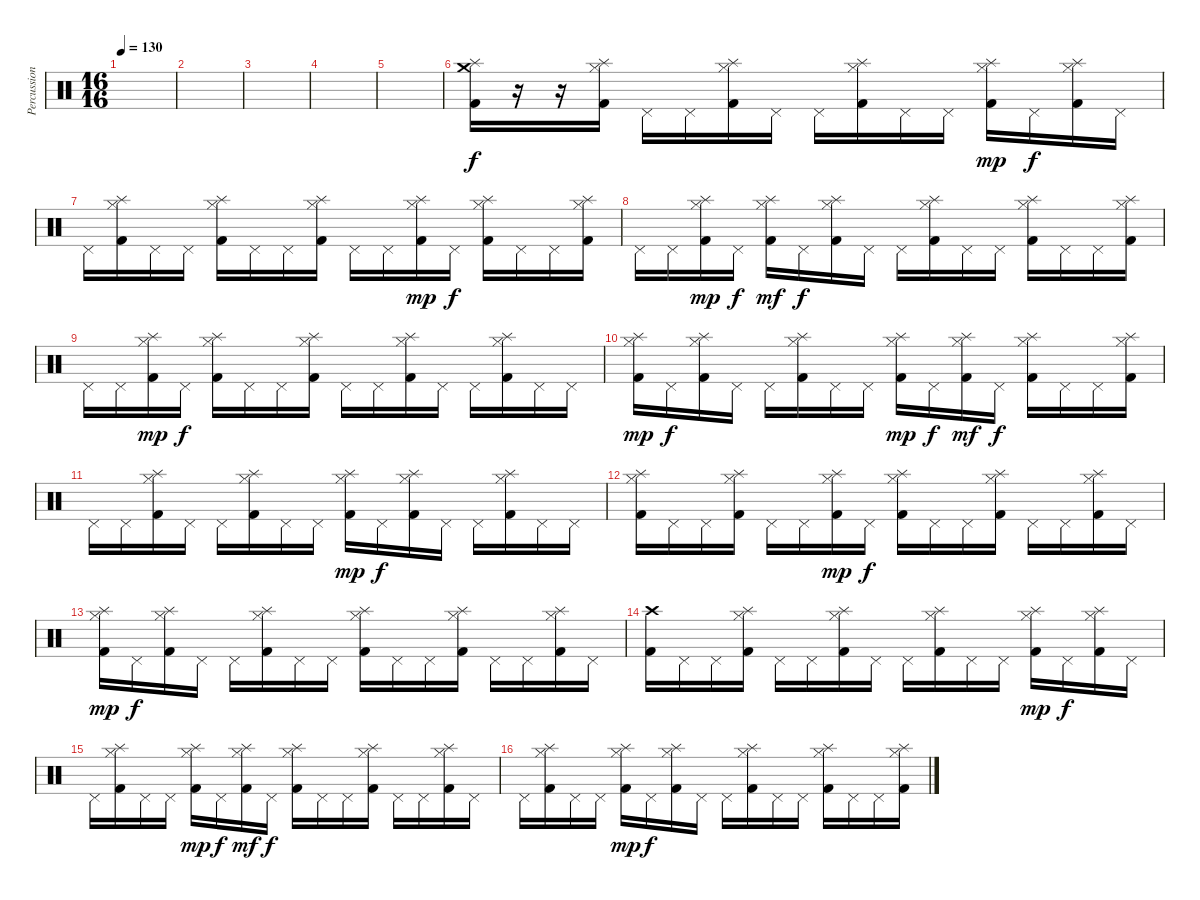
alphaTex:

\track ("Percussions" "Percussion") {instrument percussion}
\staff {score}
\articulation defaults
\ts (16 16)
\tempo 130
\clef neutral
\ks c
|
|
|
|
|
("Crash medium (hit)" "Splash (hit)" "Kick (hit) 2").16 r.16 r.16 ("Splash (hit)" "Hi-Hat (closed)" "Kick (hit) 2").16 "Pedal Hi-Hat (hit)".16 "Pedal Hi-Hat (hit)".16 ("Splash (hit)" "Hi-Hat (closed)" "Kick (hit) 2").16 "Pedal Hi-Hat (hit)".16 "Pedal Hi-Hat (hit)".16 ("Splash (hit)" "Hi-Hat (closed)" "Kick (hit) 2").16 "Pedal Hi-Hat (hit)".16 "Pedal Hi-Hat (hit)".16 ("Splash (hit)" "Hi-Hat (closed)" "Kick (hit) 2").16{dy mp} "Pedal Hi-Hat (hit)".16{dy f} ("Splash (hit)" "Hi-Hat (closed)" "Kick (hit) 2").16 "Pedal Hi-Hat (hit)".16 |
"Pedal Hi-Hat (hit)".16 ("Splash (hit)" "Hi-Hat (closed)" "Kick (hit) 2").16 "Pedal Hi-Hat (hit)".16 "Pedal Hi-Hat (hit)".16 ("Splash (hit)" "Hi-Hat (closed)" "Kick (hit) 2").16 "Pedal Hi-Hat (hit)".16 "Pedal Hi-Hat (hit)".16 ("Splash (hit)" "Hi-Hat (closed)" "Kick (hit) 2").16 "Pedal Hi-Hat (hit)".16 "Pedal Hi-Hat (hit)".16 ("Splash (hit)" "Hi-Hat (closed)" "Kick (hit) 2").16{dy mp} "Pedal Hi-Hat (hit)".16{dy f} ("Splash (hit)" "Hi-Hat (closed)" "Kick (hit) 2").16 "Pedal Hi-Hat (hit)".16 "Pedal Hi-Hat (hit)".16 ("Splash (hit)" "Hi-Hat (closed)" "Kick (hit) 2").16 |
"Pedal Hi-Hat (hit)".16 "Pedal Hi-Hat (hit)".16 ("Splash (hit)" "Hi-Hat (closed)" "Kick (hit) 2").16{dy mp} "Pedal Hi-Hat (hit)".16{dy f} ("Splash (hit)" "Hi-Hat (closed)" "Kick (hit) 2").16{dy mf} "Pedal Hi-Hat (hit)".16{dy f} ("Splash (hit)" "Hi-Hat (closed)" "Kick (hit) 2").16 "Pedal Hi-Hat (hit)".16 "Pedal Hi-Hat (hit)".16 ("Splash (hit)" "Hi-Hat (closed)" "Kick (hit) 2").16 "Pedal Hi-Hat (hit)".16 "Pedal Hi-Hat (hit)".16 ("Splash (hit)" "Hi-Hat (closed)" "Kick (hit) 2").16 "Pedal Hi-Hat (hit)".16 "Pedal Hi-Hat (hit)".16 ("Splash (hit)" "Hi-Hat (closed)" "Kick (hit) 2").16 |
"Pedal Hi-Hat (hit)".16 "Pedal Hi-Hat (hit)".16 ("Splash (hit)" "Hi-Hat (closed)" "Kick (hit) 2").16{dy mp} "Pedal Hi-Hat (hit)".16{dy f} ("Splash (hit)" "Hi-Hat (closed)" "Kick (hit) 2").16 "Pedal Hi-Hat (hit)".16 "Pedal Hi-Hat (hit)".16 ("Splash (hit)" "Hi-Hat (closed)" "Kick (hit) 2").16 "Pedal Hi-Hat (hit)".16 "Pedal Hi-Hat (hit)".16 ("Splash (hit)" "Hi-Hat (closed)" "Kick (hit) 2").16 "Pedal Hi-Hat (hit)".16 "Pedal Hi-Hat (hit)".16 ("Splash (hit)" "Hi-Hat (closed)" "Kick (hit) 2").16 "Pedal Hi-Hat (hit)".16 "Pedal Hi-Hat (hit)".16 |
("Splash (hit)" "Hi-Hat (closed)" "Kick (hit) 2").16{dy mp} "Pedal Hi-Hat (hit)".16{dy f} ("Splash (hit)" "Hi-Hat (closed)" "Kick (hit) 2").16 "Pedal Hi-Hat (hit)".16 "Pedal Hi-Hat (hit)".16 ("Splash (hit)" "Hi-Hat (closed)" "Kick (hit) 2").16 "Pedal Hi-Hat (hit)".16 "Pedal Hi-Hat (hit)".16 ("Splash (hit)" "Hi-Hat (closed)" "Kick (hit) 2").16{dy mp} "Pedal Hi-Hat (hit)".16{dy f} ("Splash (hit)" "Hi-Hat (closed)" "Kick (hit) 2").16{dy mf} "Pedal Hi-Hat (hit)".16{dy f} ("Splash (hit)" "Hi-Hat (closed)" "Kick (hit) 2").16 "Pedal Hi-Hat (hit)".16 "Pedal Hi-Hat (hit)".16 ("Splash (hit)" "Hi-Hat (closed)" "Kick (hit) 2").16 |
"Pedal Hi-Hat (hit)".16 "Pedal Hi-Hat (hit)".16 ("Splash (hit)" "Hi-Hat (closed)" "Kick (hit) 2").16 "Pedal Hi-Hat (hit)".16 "Pedal Hi-Hat (hit)".16 ("Splash (hit)" "Hi-Hat (closed)" "Kick (hit) 2").16 "Pedal Hi-Hat (hit)".16 "Pedal Hi-Hat (hit)".16 ("Splash (hit)" "Hi-Hat (closed)" "Kick (hit) 2").16{dy mp} "Pedal Hi-Hat (hit)".16{dy f} ("Splash (hit)" "Hi-Hat (closed)" "Kick (hit) 2").16 "Pedal Hi-Hat (hit)".16 "Pedal Hi-Hat (hit)".16 ("Splash (hit)" "Hi-Hat (closed)" "Kick (hit) 2").16 "Pedal Hi-Hat (hit)".16 "Pedal Hi-Hat (hit)".16 |
("Splash (hit)" "Hi-Hat (closed)" "Kick (hit) 2").16 "Pedal Hi-Hat (hit)".16 "Pedal Hi-Hat (hit)".16 ("Splash (hit)" "Hi-Hat (closed)" "Kick (hit) 2").16 "Pedal Hi-Hat (hit)".16 "Pedal Hi-Hat (hit)".16 ("Splash (hit)" "Hi-Hat (closed)" "Kick (hit) 2").16{dy mp} "Pedal Hi-Hat (hit)".16{dy f} ("Splash (hit)" "Hi-Hat (closed)" "Kick (hit) 2").16 "Pedal Hi-Hat (hit)".16 "Pedal Hi-Hat (hit)".16 ("Splash (hit)" "Hi-Hat (closed)" "Kick (hit) 2").16 "Pedal Hi-Hat (hit)".16 "Pedal Hi-Hat (hit)".16 ("Splash (hit)" "Hi-Hat (closed)" "Kick (hit) 2").16 "Pedal Hi-Hat (hit)".16 |
("Splash (hit)" "Hi-Hat (closed)" "Kick (hit) 2").16{dy mp} "Pedal Hi-Hat (hit)".16{dy f} ("Splash (hit)" "Hi-Hat (closed)" "Kick (hit) 2").16 "Pedal Hi-Hat (hit)".16 "Pedal Hi-Hat (hit)".16 ("Splash (hit)" "Hi-Hat (closed)" "Kick (hit) 2").16 "Pedal Hi-Hat (hit)".16 "Pedal Hi-Hat (hit)".16 ("Splash (hit)" "Hi-Hat (closed)" "Kick (hit) 2").16 "Pedal Hi-Hat (hit)".16 "Pedal Hi-Hat (hit)".16 ("Splash (hit)" "Hi-Hat (closed)" "Kick (hit) 2").16 "Pedal Hi-Hat (hit)".16 "Pedal Hi-Hat (hit)".16 ("Splash (hit)" "Hi-Hat (closed)" "Kick (hit) 2").16 "Pedal Hi-Hat (hit)".16 |
("Crash high (hit)" "Kick (hit) 2").16 "Pedal Hi-Hat (hit)".16 "Pedal Hi-Hat (hit)".16 ("Splash (hit)" "Hi-Hat (closed)" "Kick (hit) 2").16 "Pedal Hi-Hat (hit)".16 "Pedal Hi-Hat (hit)".16 ("Splash (hit)" "Hi-Hat (closed)" "Kick (hit) 2").16 "Pedal Hi-Hat (hit)".16 "Pedal Hi-Hat (hit)".16 ("Splash (hit)" "Hi-Hat (closed)" "Kick (hit) 2").16 "Pedal Hi-Hat (hit)".16 "Pedal Hi-Hat (hit)".16 ("Splash (hit)" "Hi-Hat (closed)" "Kick (hit) 2").16{dy mp} "Pedal Hi-Hat (hit)".16{dy f} ("Splash (hit)" "Hi-Hat (closed)" "Kick (hit) 2").16 "Pedal Hi-Hat (hit)".16 |
"Pedal Hi-Hat (hit)".16 ("Splash (hit)" "Hi-Hat (closed)" "Kick (hit) 2").16 "Pedal Hi-Hat (hit)".16 "Pedal Hi-Hat (hit)".16 ("Splash (hit)" "Hi-Hat (closed)" "Kick (hit) 2").16{dy mp} "Pedal Hi-Hat (hit)".16{dy f} ("Splash (hit)" "Hi-Hat (closed)" "Kick (hit) 2").16{dy mf} "Pedal Hi-Hat (hit)".16{dy f} ("Splash (hit)" "Hi-Hat (closed)" "Kick (hit) 2").16 "Pedal Hi-Hat (hit)".16 "Pedal Hi-Hat (hit)".16 ("Splash (hit)" "Hi-Hat (closed)" "Kick (hit) 2").16 "Pedal Hi-Hat (hit)".16 "Pedal Hi-Hat (hit)".16 ("Splash (hit)" "Hi-Hat (closed)" "Kick (hit) 2").16 "Pedal Hi-Hat (hit)".16 |
"Pedal Hi-Hat (hit)".16 ("Splash (hit)" "Hi-Hat (closed)" "Kick (hit) 2").16 "Pedal Hi-Hat (hit)".16 "Pedal Hi-Hat (hit)".16 ("Splash (hit)" "Hi-Hat (closed)" "Kick (hit) 2").16{dy mp} "Pedal Hi-Hat (hit)".16{dy f} ("Splash (hit)" "Hi-Hat (closed)" "Kick (hit) 2").16 "Pedal Hi-Hat (hit)".16 "Pedal Hi-Hat (hit)".16 ("Splash (hit)" "Hi-Hat (closed)" "Kick (hit) 2").16 "Pedal Hi-Hat (hit)".16 "Pedal Hi-Hat (hit)".16 ("Splash (hit)" "Hi-Hat (closed)" "Kick (hit) 2").16 "Pedal Hi-Hat (hit)".16 "Pedal Hi-Hat (hit)".16 ("Splash (hit)" "Hi-Hat (closed)" "Kick (hit) 2").16
